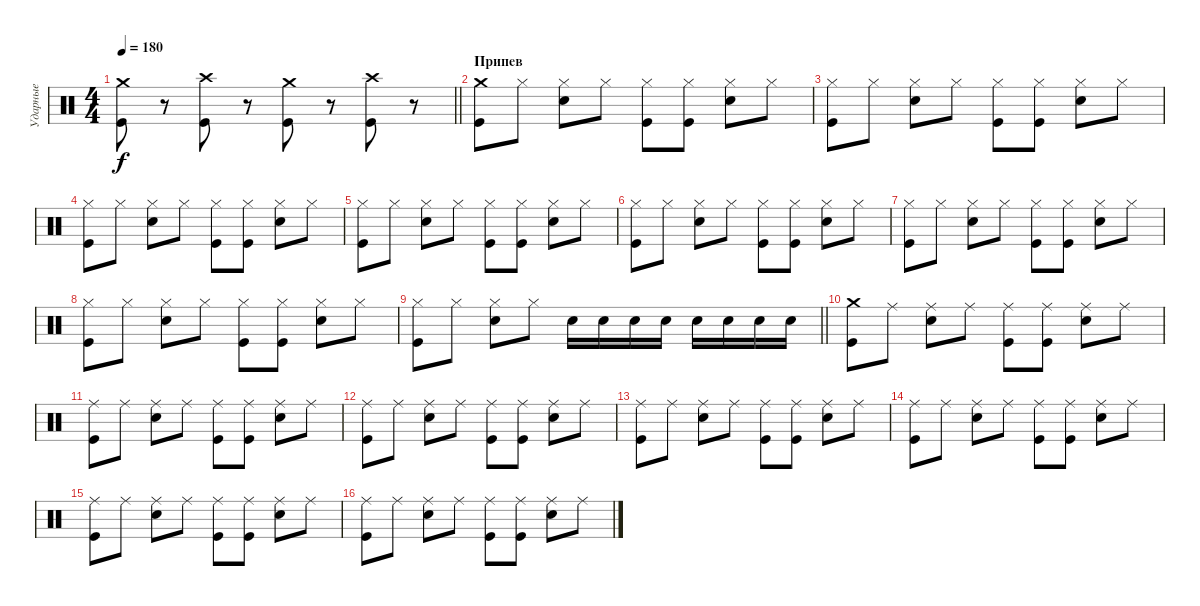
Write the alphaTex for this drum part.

\track ("Ударные" "Ударные") {instrument percussion}
\staff {score}
\articulation defaults
\ts (4 4)
\tempo 180
\clef neutral
\barLineRight lightlight
\ks c
("Crash medium (hit)" "Kick (hit)").8{dy f} r.8 ("Crash high (hit)" "Kick (hit)").8 r.8 ("Crash medium (hit)" "Kick (hit)").8 r.8 ("Crash high (hit)" "Kick (hit)").8 r.8 |
\section ("" "Припев")
("Crash medium (hit)" "Kick (hit)").8 "Hi-Hat (closed)".8 ("Hi-Hat (closed)" "Electric Snare (hit)").8 "Hi-Hat (closed)".8 ("Hi-Hat (closed)" "Kick (hit)").8 ("Hi-Hat (closed)" "Kick (hit)").8 ("Hi-Hat (closed)" "Electric Snare (hit)").8 "Hi-Hat (closed)".8 |
("Hi-Hat (closed)" "Kick (hit)").8 "Hi-Hat (closed)".8 ("Hi-Hat (closed)" "Electric Snare (hit)").8 "Hi-Hat (closed)".8 ("Hi-Hat (closed)" "Kick (hit)").8 ("Hi-Hat (closed)" "Kick (hit)").8 ("Hi-Hat (closed)" "Electric Snare (hit)").8 "Hi-Hat (closed)".8 |
("Hi-Hat (closed)" "Kick (hit)").8 "Hi-Hat (closed)".8 ("Hi-Hat (closed)" "Electric Snare (hit)").8 "Hi-Hat (closed)".8 ("Hi-Hat (closed)" "Kick (hit)").8 ("Hi-Hat (closed)" "Kick (hit)").8 ("Hi-Hat (closed)" "Electric Snare (hit)").8 "Hi-Hat (closed)".8 |
("Hi-Hat (closed)" "Kick (hit)").8 "Hi-Hat (closed)".8 ("Hi-Hat (closed)" "Electric Snare (hit)").8 "Hi-Hat (closed)".8 ("Hi-Hat (closed)" "Kick (hit)").8 ("Hi-Hat (closed)" "Kick (hit)").8 ("Hi-Hat (closed)" "Electric Snare (hit)").8 "Hi-Hat (closed)".8 |
("Hi-Hat (closed)" "Kick (hit)").8 "Hi-Hat (closed)".8 ("Hi-Hat (closed)" "Electric Snare (hit)").8 "Hi-Hat (closed)".8 ("Hi-Hat (closed)" "Kick (hit)").8 ("Hi-Hat (closed)" "Kick (hit)").8 ("Hi-Hat (closed)" "Electric Snare (hit)").8 "Hi-Hat (closed)".8 |
("Hi-Hat (closed)" "Kick (hit)").8 "Hi-Hat (closed)".8 ("Hi-Hat (closed)" "Electric Snare (hit)").8 "Hi-Hat (closed)".8 ("Hi-Hat (closed)" "Kick (hit)").8 ("Hi-Hat (closed)" "Kick (hit)").8 ("Hi-Hat (closed)" "Electric Snare (hit)").8 "Hi-Hat (closed)".8 |
("Hi-Hat (closed)" "Kick (hit)").8 "Hi-Hat (closed)".8 ("Hi-Hat (closed)" "Electric Snare (hit)").8 "Hi-Hat (closed)".8 ("Hi-Hat (closed)" "Kick (hit)").8 ("Hi-Hat (closed)" "Kick (hit)").8 ("Hi-Hat (closed)" "Electric Snare (hit)").8 "Hi-Hat (closed)".8 |
\barLineRight lightlight
("Hi-Hat (closed)" "Kick (hit)").8 "Hi-Hat (closed)".8 ("Hi-Hat (closed)" "Electric Snare (hit)").8 "Hi-Hat (closed)".8 "Electric Snare (hit)".16 "Electric Snare (hit)".16 "Electric Snare (hit)".16 "Electric Snare (hit)".16 "Electric Snare (hit)".16 "Electric Snare (hit)".16 "Electric Snare (hit)".16 "Electric Snare (hit)".16 |
\section ("" " ")
("Crash medium (hit)" "Kick (hit)").8 "Ride (middle)".8 ("Ride (middle)" "Electric Snare (hit)").8 "Ride (middle)".8 ("Ride (middle)" "Kick (hit)").8 ("Ride (middle)" "Kick (hit)").8 ("Ride (middle)" "Electric Snare (hit)").8 "Ride (middle)".8 |
("Ride (middle)" "Kick (hit)").8 "Ride (middle)".8 ("Ride (middle)" "Electric Snare (hit)").8 "Ride (middle)".8 ("Ride (middle)" "Kick (hit)").8 ("Ride (middle)" "Kick (hit)").8 ("Ride (middle)" "Electric Snare (hit)").8 "Ride (middle)".8 |
("Ride (middle)" "Kick (hit)").8 "Ride (middle)".8 ("Ride (middle)" "Electric Snare (hit)").8 "Ride (middle)".8 ("Ride (middle)" "Kick (hit)").8 ("Ride (middle)" "Kick (hit)").8 ("Ride (middle)" "Electric Snare (hit)").8 "Ride (middle)".8 |
("Ride (middle)" "Kick (hit)").8 "Ride (middle)".8 ("Ride (middle)" "Electric Snare (hit)").8 "Ride (middle)".8 ("Ride (middle)" "Kick (hit)").8 ("Ride (middle)" "Kick (hit)").8 ("Ride (middle)" "Electric Snare (hit)").8 "Ride (middle)".8 |
("Ride (middle)" "Kick (hit)").8 "Ride (middle)".8 ("Ride (middle)" "Electric Snare (hit)").8 "Ride (middle)".8 ("Ride (middle)" "Kick (hit)").8 ("Ride (middle)" "Kick (hit)").8 ("Ride (middle)" "Electric Snare (hit)").8 "Ride (middle)".8 |
("Ride (middle)" "Kick (hit)").8 "Ride (middle)".8 ("Ride (middle)" "Electric Snare (hit)").8 "Ride (middle)".8 ("Ride (middle)" "Kick (hit)").8 ("Ride (middle)" "Kick (hit)").8 ("Ride (middle)" "Electric Snare (hit)").8 "Ride (middle)".8 |
("Ride (middle)" "Kick (hit)").8 "Ride (middle)".8 ("Ride (middle)" "Electric Snare (hit)").8 "Ride (middle)".8 ("Ride (middle)" "Kick (hit)").8 ("Ride (middle)" "Kick (hit)").8 ("Ride (middle)" "Electric Snare (hit)").8 "Ride (middle)".8
